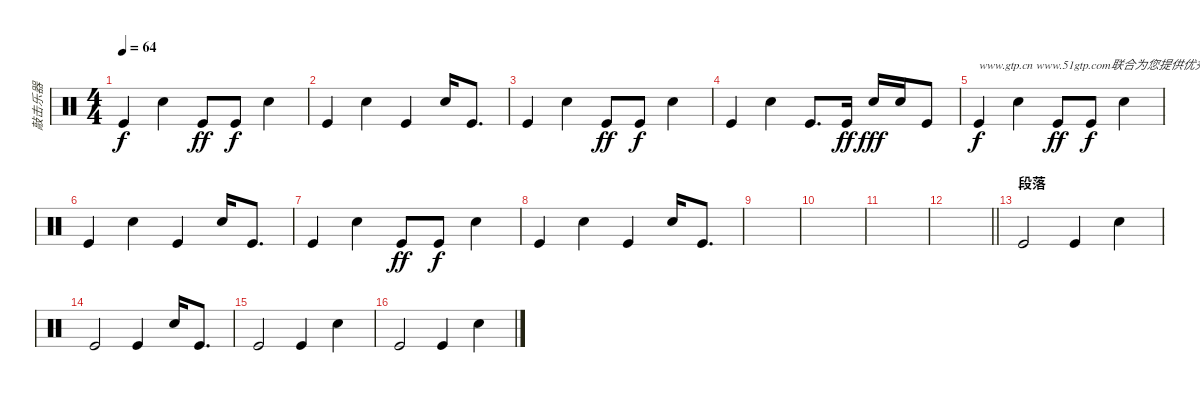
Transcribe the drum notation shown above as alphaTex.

\track ("敲击乐器" "敲击乐器") {instrument percussion}
\staff {score}
\articulation defaults
\ts (4 4)
\tempo 64
\clef neutral
\ks c "Kick (hit)".4{dy f} "Snare (hit) 2".4 "Kick (hit)".8{dy ff} "Kick (hit)".8{dy f} "Snare (hit) 2".4
|
"Kick (hit)".4 "Snare (hit) 2".4 "Kick (hit)".4 "Snare (hit) 2".16 "Kick (hit)".8{d} |
"Kick (hit)".4 "Snare (hit) 2".4 "Kick (hit)".8{dy ff} "Kick (hit)".8{dy f} "Snare (hit) 2".4 |
"Kick (hit)".4 "Snare (hit) 2".4 "Kick (hit)".8{d} "Kick (hit)".16{dy ff} "Snare (hit) 2".16{dy fff} "Snare (hit) 2".16 "Kick (hit)".8 |
"Kick (hit)".4{txt "www.gtp.cn www.51gtp.com联合为您提供优秀的GTP!" dy f} "Snare (hit) 2".4 "Kick (hit)".8{dy ff} "Kick (hit)".8{dy f} "Snare (hit) 2".4 |
"Kick (hit)".4 "Snare (hit) 2".4 "Kick (hit)".4 "Snare (hit) 2".16 "Kick (hit)".8{d} |
"Kick (hit)".4 "Snare (hit) 2".4 "Kick (hit)".8{dy ff} "Kick (hit)".8{dy f} "Snare (hit) 2".4 |
"Kick (hit)".4 "Snare (hit) 2".4 "Kick (hit)".4 "Snare (hit) 2".16 "Kick (hit)".8{d} |
|
|
|
\barLineRight lightlight
|
\section ("" "段落 ")
"Kick (hit)".2 "Kick (hit)".4 "Snare (hit) 2".4 |
"Kick (hit)".2 "Kick (hit)".4 "Snare (hit) 2".16 "Kick (hit)".8{d} |
"Kick (hit)".2 "Kick (hit)".4 "Snare (hit) 2".4 |
"Kick (hit)".2 "Kick (hit)".4 "Snare (hit) 2".4
